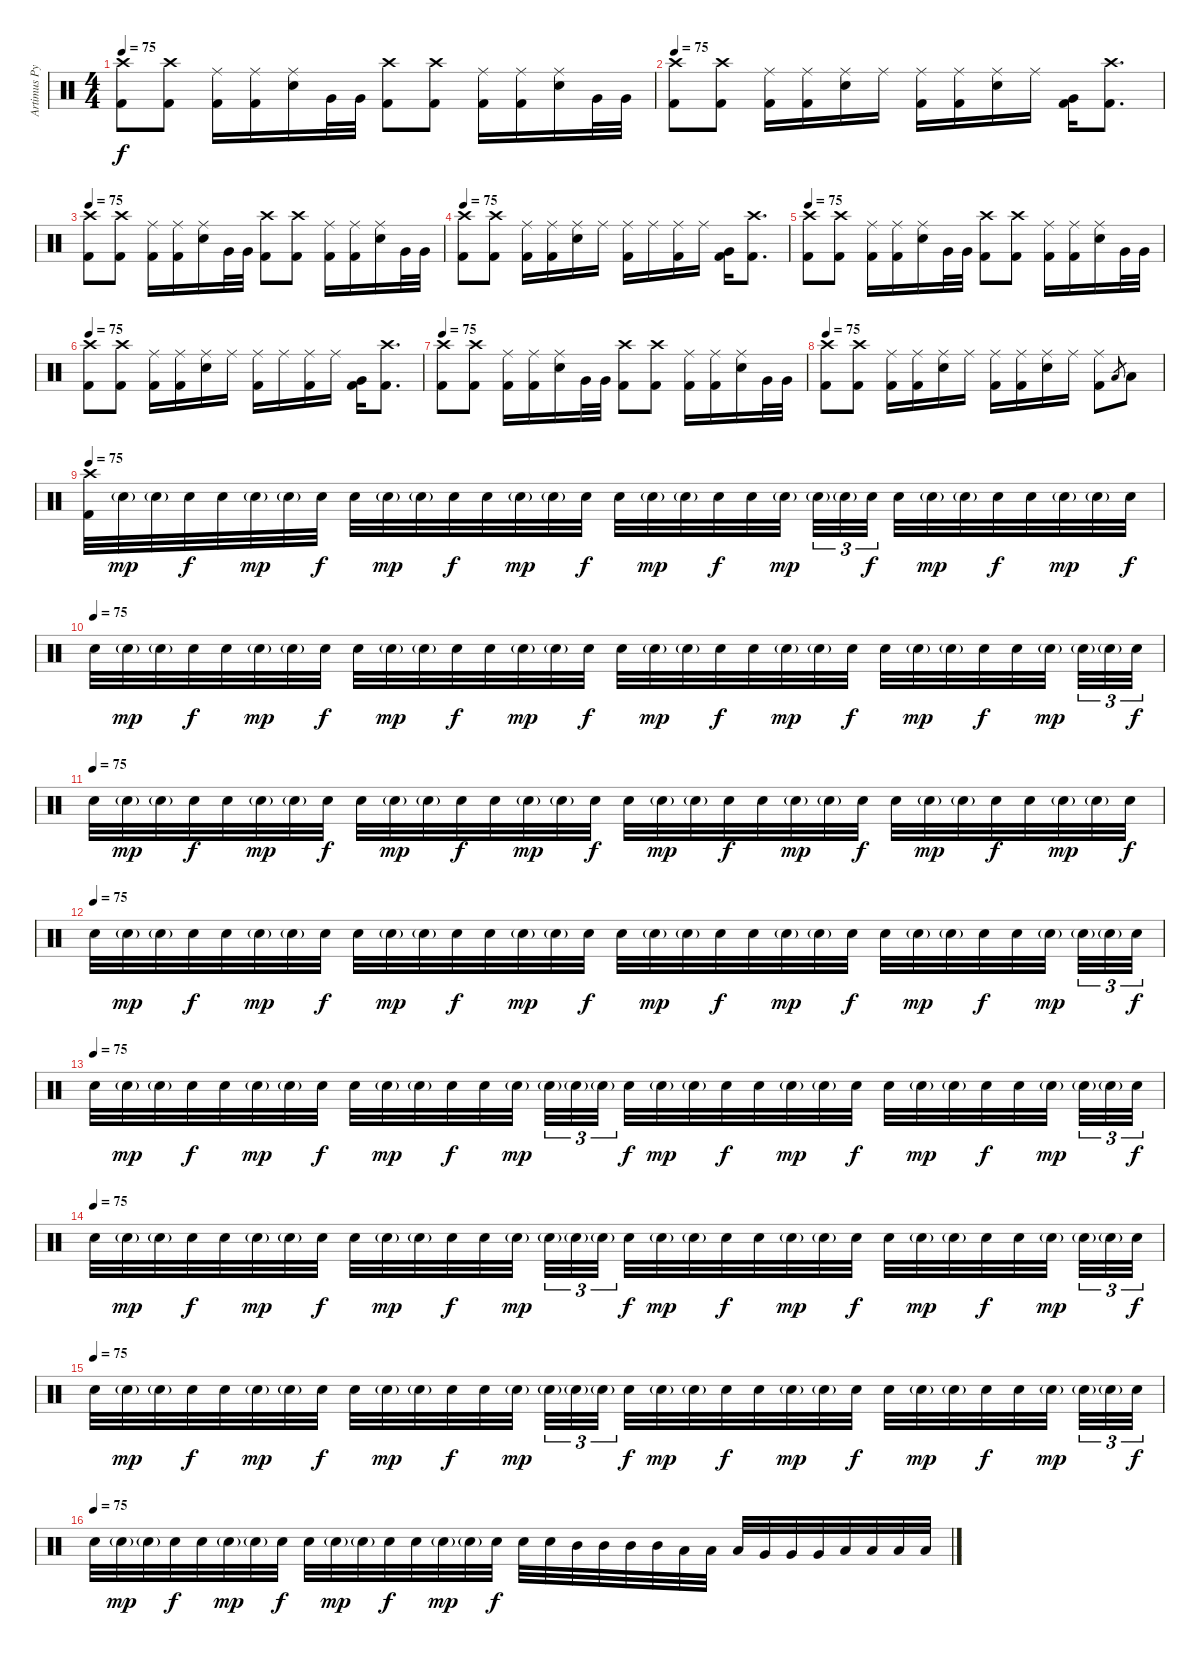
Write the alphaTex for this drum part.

\track ("Artimus Pyle (drums)" "Artimus Py") {instrument percussion}
\staff {score}
\articulation defaults
\ts (4 4)
\tempo 75
\clef neutral
\ks c
("Crash high (hit)" "Kick (hit) 2").8{dy f} ("Crash high (hit)" "Kick (hit) 2").8 ("Ride (middle)" "Kick (hit) 2").16 ("Ride (middle)" "Kick (hit) 2").16 ("Ride (middle)" "Electric Snare (hit)").16 "Very Low Tom (hit)".32 "Very Low Tom (hit)".32 ("Crash high (hit)" "Kick (hit) 2").8 ("Crash high (hit)" "Kick (hit) 2").8 ("Ride (middle)" "Kick (hit) 2").16 ("Ride (middle)" "Kick (hit) 2").16 ("Ride (middle)" "Electric Snare (hit)").16 "Very Low Tom (hit)".32 "Very Low Tom (hit)".32 |
\tempo 75
("Crash high (hit)" "Kick (hit) 2").8 ("Crash high (hit)" "Kick (hit) 2").8 ("Ride (middle)" "Kick (hit) 2").16 ("Ride (middle)" "Kick (hit) 2").16 ("Ride (middle)" "Electric Snare (hit)").16 "Ride (middle)".16 ("Ride (middle)" "Kick (hit) 2").16 ("Ride (middle)" "Kick (hit) 2").16 ("Ride (middle)" "Electric Snare (hit)").16 "Ride (middle)".16 ("Very Low Tom (hit)" "Kick (hit) 2").16 ("Crash high (hit)" "Kick (hit) 2").8{d} |
\tempo 75
("Crash high (hit)" "Kick (hit) 2").8 ("Crash high (hit)" "Kick (hit) 2").8 ("Ride (middle)" "Kick (hit) 2").16 ("Ride (middle)" "Kick (hit) 2").16 ("Ride (middle)" "Electric Snare (hit)").16 "Very Low Tom (hit)".32 "Very Low Tom (hit)".32 ("Crash high (hit)" "Kick (hit) 2").8 ("Crash high (hit)" "Kick (hit) 2").8 ("Ride (middle)" "Kick (hit) 2").16 ("Ride (middle)" "Kick (hit) 2").16 ("Ride (middle)" "Electric Snare (hit)").16 "Very Low Tom (hit)".32 "Very Low Tom (hit)".32 |
\tempo 75
("Crash high (hit)" "Kick (hit) 2").8 ("Crash high (hit)" "Kick (hit) 2").8 ("Ride (middle)" "Kick (hit) 2").16 ("Ride (middle)" "Kick (hit) 2").16 ("Ride (middle)" "Electric Snare (hit)").16 "Ride (middle)".16 ("Ride (middle)" "Kick (hit) 2").16 "Ride (middle)".16 ("Ride (middle)" "Kick (hit) 2").16 "Ride (middle)".16 ("Very Low Tom (hit)" "Kick (hit) 2").16 ("Crash high (hit)" "Kick (hit) 2").8{d} |
\tempo 75
("Crash high (hit)" "Kick (hit) 2").8 ("Crash high (hit)" "Kick (hit) 2").8 ("Ride (middle)" "Kick (hit) 2").16 ("Ride (middle)" "Kick (hit) 2").16 ("Ride (middle)" "Electric Snare (hit)").16 "Very Low Tom (hit)".32 "Very Low Tom (hit)".32 ("Crash high (hit)" "Kick (hit) 2").8 ("Crash high (hit)" "Kick (hit) 2").8 ("Ride (middle)" "Kick (hit) 2").16 ("Ride (middle)" "Kick (hit) 2").16 ("Ride (middle)" "Electric Snare (hit)").16 "Very Low Tom (hit)".32 "Very Low Tom (hit)".32 |
\tempo 75
("Crash high (hit)" "Kick (hit) 2").8 ("Crash high (hit)" "Kick (hit) 2").8 ("Ride (middle)" "Kick (hit) 2").16 ("Ride (middle)" "Kick (hit) 2").16 ("Ride (middle)" "Electric Snare (hit)").16 "Ride (middle)".16 ("Ride (middle)" "Kick (hit) 2").16 "Ride (middle)".16 ("Ride (middle)" "Kick (hit) 2").16 "Ride (middle)".16 ("Very Low Tom (hit)" "Kick (hit) 2").16 ("Crash high (hit)" "Kick (hit) 2").8{d} |
\tempo 75
("Crash high (hit)" "Kick (hit) 2").8 ("Crash high (hit)" "Kick (hit) 2").8 ("Ride (middle)" "Kick (hit) 2").16 ("Ride (middle)" "Kick (hit) 2").16 ("Ride (middle)" "Electric Snare (hit)").16 "Very Low Tom (hit)".32 "Very Low Tom (hit)".32 ("Crash high (hit)" "Kick (hit) 2").8 ("Crash high (hit)" "Kick (hit) 2").8 ("Ride (middle)" "Kick (hit) 2").16 ("Ride (middle)" "Kick (hit) 2").16 ("Ride (middle)" "Electric Snare (hit)").16 "Very Low Tom (hit)".32 "Very Low Tom (hit)".32 |
\tempo 75
("Crash high (hit)" "Kick (hit) 2").8 ("Crash high (hit)" "Kick (hit) 2").8 ("Ride (middle)" "Kick (hit) 2").16 ("Ride (middle)" "Kick (hit) 2").16 ("Ride (middle)" "Electric Snare (hit)").16 "Ride (middle)".16 ("Ride (middle)" "Kick (hit) 2").16 ("Ride (middle)" "Kick (hit) 2").16 ("Ride (middle)" "Electric Snare (hit)").16 "Ride (middle)".16 ("Ride (middle)" "Kick (hit) 2").8 "Low Tom (hit)".8{gr} "Low Tom (hit)".8 |
\tempo 75
("Crash high (hit)" "Kick (hit) 2").32 "Electric Snare (hit)"{g}.32{dy mp} "Electric Snare (hit)"{g}.32 "Electric Snare (hit)".32{dy f} "Electric Snare (hit)".32 "Electric Snare (hit)"{g}.32{dy mp} "Electric Snare (hit)"{g}.32 "Electric Snare (hit)".32{dy f} "Electric Snare (hit)".32 "Electric Snare (hit)"{g}.32{dy mp} "Electric Snare (hit)"{g}.32 "Electric Snare (hit)".32{dy f} "Electric Snare (hit)".32 "Electric Snare (hit)"{g}.32{dy mp} "Electric Snare (hit)"{g}.32 "Electric Snare (hit)".32{dy f} "Electric Snare (hit)".32 "Electric Snare (hit)"{g}.32{dy mp} "Electric Snare (hit)"{g}.32 "Electric Snare (hit)".32{dy f} "Electric Snare (hit)".32 "Electric Snare (hit)"{g}.32{dy mp} "Electric Snare (hit)"{g}.32{tu (3 2)} "Electric Snare (hit)"{g}.32{tu (3 2)} "Electric Snare (hit)".32{tu (3 2) dy f} "Electric Snare (hit)".32 "Electric Snare (hit)"{g}.32{dy mp} "Electric Snare (hit)"{g}.32 "Electric Snare (hit)".32{dy f} "Electric Snare (hit)".32 "Electric Snare (hit)"{g}.32{dy mp} "Electric Snare (hit)"{g}.32 "Electric Snare (hit)".32{dy f} |
\tempo (75)
"Electric Snare (hit)".32 "Electric Snare (hit)"{g}.32{dy mp} "Electric Snare (hit)"{g}.32 "Electric Snare (hit)".32{dy f} "Electric Snare (hit)".32 "Electric Snare (hit)"{g}.32{dy mp} "Electric Snare (hit)"{g}.32 "Electric Snare (hit)".32{dy f} "Electric Snare (hit)".32 "Electric Snare (hit)"{g}.32{dy mp} "Electric Snare (hit)"{g}.32 "Electric Snare (hit)".32{dy f} "Electric Snare (hit)".32 "Electric Snare (hit)"{g}.32{dy mp} "Electric Snare (hit)"{g}.32 "Electric Snare (hit)".32{dy f} "Electric Snare (hit)".32 "Electric Snare (hit)"{g}.32{dy mp} "Electric Snare (hit)"{g}.32 "Electric Snare (hit)".32{dy f} "Electric Snare (hit)".32 "Electric Snare (hit)"{g}.32{dy mp} "Electric Snare (hit)"{g}.32 "Electric Snare (hit)".32{dy f} "Electric Snare (hit)".32 "Electric Snare (hit)"{g}.32{dy mp} "Electric Snare (hit)"{g}.32 "Electric Snare (hit)".32{dy f} "Electric Snare (hit)".32 "Electric Snare (hit)"{g}.32{dy mp} "Electric Snare (hit)"{g}.32{tu (3 2)} "Electric Snare (hit)"{g}.32{tu (3 2)} "Electric Snare (hit)".32{tu (3 2) dy f} |
\tempo (75)
"Electric Snare (hit)".32 "Electric Snare (hit)"{g}.32{dy mp} "Electric Snare (hit)"{g}.32 "Electric Snare (hit)".32{dy f} "Electric Snare (hit)".32 "Electric Snare (hit)"{g}.32{dy mp} "Electric Snare (hit)"{g}.32 "Electric Snare (hit)".32{dy f} "Electric Snare (hit)".32 "Electric Snare (hit)"{g}.32{dy mp} "Electric Snare (hit)"{g}.32 "Electric Snare (hit)".32{dy f} "Electric Snare (hit)".32 "Electric Snare (hit)"{g}.32{dy mp} "Electric Snare (hit)"{g}.32 "Electric Snare (hit)".32{dy f} "Electric Snare (hit)".32 "Electric Snare (hit)"{g}.32{dy mp} "Electric Snare (hit)"{g}.32 "Electric Snare (hit)".32{dy f} "Electric Snare (hit)".32 "Electric Snare (hit)"{g}.32{dy mp} "Electric Snare (hit)"{g}.32 "Electric Snare (hit)".32{dy f} "Electric Snare (hit)".32 "Electric Snare (hit)"{g}.32{dy mp} "Electric Snare (hit)"{g}.32 "Electric Snare (hit)".32{dy f} "Electric Snare (hit)".32 "Electric Snare (hit)"{g}.32{dy mp} "Electric Snare (hit)"{g}.32 "Electric Snare (hit)".32{dy f} |
\tempo (75)
"Electric Snare (hit)".32 "Electric Snare (hit)"{g}.32{dy mp} "Electric Snare (hit)"{g}.32 "Electric Snare (hit)".32{dy f} "Electric Snare (hit)".32 "Electric Snare (hit)"{g}.32{dy mp} "Electric Snare (hit)"{g}.32 "Electric Snare (hit)".32{dy f} "Electric Snare (hit)".32 "Electric Snare (hit)"{g}.32{dy mp} "Electric Snare (hit)"{g}.32 "Electric Snare (hit)".32{dy f} "Electric Snare (hit)".32 "Electric Snare (hit)"{g}.32{dy mp} "Electric Snare (hit)"{g}.32 "Electric Snare (hit)".32{dy f} "Electric Snare (hit)".32 "Electric Snare (hit)"{g}.32{dy mp} "Electric Snare (hit)"{g}.32 "Electric Snare (hit)".32{dy f} "Electric Snare (hit)".32 "Electric Snare (hit)"{g}.32{dy mp} "Electric Snare (hit)"{g}.32 "Electric Snare (hit)".32{dy f} "Electric Snare (hit)".32 "Electric Snare (hit)"{g}.32{dy mp} "Electric Snare (hit)"{g}.32 "Electric Snare (hit)".32{dy f} "Electric Snare (hit)".32 "Electric Snare (hit)"{g}.32{dy mp} "Electric Snare (hit)"{g}.32{tu (3 2)} "Electric Snare (hit)"{g}.32{tu (3 2)} "Electric Snare (hit)".32{tu (3 2) dy f} |
\tempo (75)
"Electric Snare (hit)".32 "Electric Snare (hit)"{g}.32{dy mp} "Electric Snare (hit)"{g}.32 "Electric Snare (hit)".32{dy f} "Electric Snare (hit)".32 "Electric Snare (hit)"{g}.32{dy mp} "Electric Snare (hit)"{g}.32 "Electric Snare (hit)".32{dy f} "Electric Snare (hit)".32 "Electric Snare (hit)"{g}.32{dy mp} "Electric Snare (hit)"{g}.32 "Electric Snare (hit)".32{dy f} "Electric Snare (hit)".32 "Electric Snare (hit)"{g}.32{dy mp} "Electric Snare (hit)"{g}.32{tu (3 2)} "Electric Snare (hit)"{g}.32{tu (3 2)} "Electric Snare (hit)"{g}.32{tu (3 2)} "Electric Snare (hit)".32{dy f} "Electric Snare (hit)"{g}.32{dy mp} "Electric Snare (hit)"{g}.32 "Electric Snare (hit)".32{dy f} "Electric Snare (hit)".32 "Electric Snare (hit)"{g}.32{dy mp} "Electric Snare (hit)"{g}.32 "Electric Snare (hit)".32{dy f} "Electric Snare (hit)".32 "Electric Snare (hit)"{g}.32{dy mp} "Electric Snare (hit)"{g}.32 "Electric Snare (hit)".32{dy f} "Electric Snare (hit)".32 "Electric Snare (hit)"{g}.32{dy mp} "Electric Snare (hit)"{g}.32{tu (3 2)} "Electric Snare (hit)"{g}.32{tu (3 2)} "Electric Snare (hit)".32{tu (3 2) dy f} |
\tempo (75)
"Electric Snare (hit)".32 "Electric Snare (hit)"{g}.32{dy mp} "Electric Snare (hit)"{g}.32 "Electric Snare (hit)".32{dy f} "Electric Snare (hit)".32 "Electric Snare (hit)"{g}.32{dy mp} "Electric Snare (hit)"{g}.32 "Electric Snare (hit)".32{dy f} "Electric Snare (hit)".32 "Electric Snare (hit)"{g}.32{dy mp} "Electric Snare (hit)"{g}.32 "Electric Snare (hit)".32{dy f} "Electric Snare (hit)".32 "Electric Snare (hit)"{g}.32{dy mp} "Electric Snare (hit)"{g}.32{tu (3 2)} "Electric Snare (hit)"{g}.32{tu (3 2)} "Electric Snare (hit)"{g}.32{tu (3 2)} "Electric Snare (hit)".32{dy f} "Electric Snare (hit)"{g}.32{dy mp} "Electric Snare (hit)"{g}.32 "Electric Snare (hit)".32{dy f} "Electric Snare (hit)".32 "Electric Snare (hit)"{g}.32{dy mp} "Electric Snare (hit)"{g}.32 "Electric Snare (hit)".32{dy f} "Electric Snare (hit)".32 "Electric Snare (hit)"{g}.32{dy mp} "Electric Snare (hit)"{g}.32 "Electric Snare (hit)".32{dy f} "Electric Snare (hit)".32 "Electric Snare (hit)"{g}.32{dy mp} "Electric Snare (hit)"{g}.32{tu (3 2)} "Electric Snare (hit)"{g}.32{tu (3 2)} "Electric Snare (hit)".32{tu (3 2) dy f} |
\tempo (75)
"Electric Snare (hit)".32 "Electric Snare (hit)"{g}.32{dy mp} "Electric Snare (hit)"{g}.32 "Electric Snare (hit)".32{dy f} "Electric Snare (hit)".32 "Electric Snare (hit)"{g}.32{dy mp} "Electric Snare (hit)"{g}.32 "Electric Snare (hit)".32{dy f} "Electric Snare (hit)".32 "Electric Snare (hit)"{g}.32{dy mp} "Electric Snare (hit)"{g}.32 "Electric Snare (hit)".32{dy f} "Electric Snare (hit)".32 "Electric Snare (hit)"{g}.32{dy mp} "Electric Snare (hit)"{g}.32{tu (3 2)} "Electric Snare (hit)"{g}.32{tu (3 2)} "Electric Snare (hit)"{g}.32{tu (3 2)} "Electric Snare (hit)".32{dy f} "Electric Snare (hit)"{g}.32{dy mp} "Electric Snare (hit)"{g}.32 "Electric Snare (hit)".32{dy f} "Electric Snare (hit)".32 "Electric Snare (hit)"{g}.32{dy mp} "Electric Snare (hit)"{g}.32 "Electric Snare (hit)".32{dy f} "Electric Snare (hit)".32 "Electric Snare (hit)"{g}.32{dy mp} "Electric Snare (hit)"{g}.32 "Electric Snare (hit)".32{dy f} "Electric Snare (hit)".32 "Electric Snare (hit)"{g}.32{dy mp} "Electric Snare (hit)"{g}.32{tu (3 2)} "Electric Snare (hit)"{g}.32{tu (3 2)} "Electric Snare (hit)".32{tu (3 2) dy f} |
\tempo (75)
"Electric Snare (hit)".32 "Electric Snare (hit)"{g}.32{dy mp} "Electric Snare (hit)"{g}.32 "Electric Snare (hit)".32{dy f} "Electric Snare (hit)".32 "Electric Snare (hit)"{g}.32{dy mp} "Electric Snare (hit)"{g}.32 "Electric Snare (hit)".32{dy f} "Electric Snare (hit)".32 "Electric Snare (hit)"{g}.32{dy mp} "Electric Snare (hit)"{g}.32 "Electric Snare (hit)".32{dy f} "Electric Snare (hit)".32 "Electric Snare (hit)"{g}.32{dy mp} "Electric Snare (hit)"{g}.32 "Electric Snare (hit)".32{dy f} "Electric Snare (hit)".32 "Electric Snare (hit)".32 "Mid Tom (hit)".32 "Mid Tom (hit)".32 "Mid Tom (hit)".32 "Mid Tom (hit)".32 "Low Tom (hit)".32 "Low Tom (hit)".32 "Low Tom (hit)".32 "Very Low Tom (hit)".32 "Very Low Tom (hit)".32 "Very Low Tom (hit)".32 "Low Floor Tom (hit)".32 "Low Floor Tom (hit)".32 "Low Floor Tom (hit)".32 "Low Floor Tom (hit)".32
